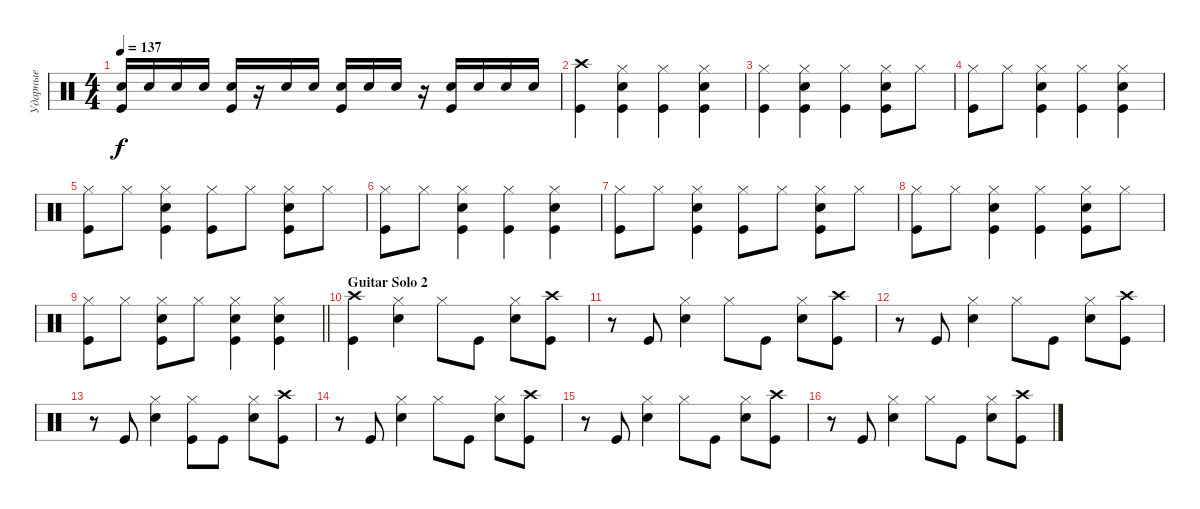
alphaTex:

\track ("Ударные" "Ударные") {instrument percussion}
\staff {score}
\articulation defaults
\ts (4 4)
\tempo 137
\clef neutral
\ks aminor
("Snare (hit) 2" "Kick (hit)").16{dy f} "Snare (hit) 2".16 "Snare (hit) 2".16 "Snare (hit) 2".16 ("Snare (hit) 2" "Kick (hit)").16 r.16 "Snare (hit) 2".16 "Snare (hit) 2".16 ("Snare (hit) 2" "Kick (hit)").16 "Snare (hit) 2".16 "Snare (hit) 2".16 r.16 ("Snare (hit) 2" "Kick (hit)").16 "Snare (hit) 2".16 "Snare (hit) 2".16 "Snare (hit) 2".16 |
("Kick (hit)" "Crash high (hit)").4 ("Snare (hit) 2" "Hi-Hat (closed)" "Kick (hit)").4 ("Kick (hit)" "Hi-Hat (closed)").4 ("Snare (hit) 2" "Hi-Hat (closed)" "Kick (hit)").4 |
("Kick (hit)" "Hi-Hat (closed)").4 ("Snare (hit) 2" "Hi-Hat (closed)" "Kick (hit)").4 ("Kick (hit)" "Hi-Hat (closed)").4 ("Snare (hit) 2" "Hi-Hat (closed)" "Kick (hit)").8 "Hi-Hat (closed)".8 |
("Kick (hit)" "Hi-Hat (closed)").8 "Hi-Hat (closed)".8 ("Snare (hit) 2" "Hi-Hat (closed)" "Kick (hit)").4 ("Kick (hit)" "Hi-Hat (closed)").4 ("Snare (hit) 2" "Hi-Hat (closed)" "Kick (hit)").4 |
("Kick (hit)" "Hi-Hat (closed)").8 "Hi-Hat (closed)".8 ("Snare (hit) 2" "Hi-Hat (closed)" "Kick (hit)").4 ("Kick (hit)" "Hi-Hat (closed)").8 "Hi-Hat (closed)".8 ("Snare (hit) 2" "Hi-Hat (closed)" "Kick (hit)").8 "Hi-Hat (closed)".8 |
("Kick (hit)" "Hi-Hat (closed)").8 "Hi-Hat (closed)".8 ("Snare (hit) 2" "Hi-Hat (closed)" "Kick (hit)").4 ("Kick (hit)" "Hi-Hat (closed)").4 ("Snare (hit) 2" "Hi-Hat (closed)" "Kick (hit)").4 |
("Kick (hit)" "Hi-Hat (closed)").8 "Hi-Hat (closed)".8 ("Snare (hit) 2" "Hi-Hat (closed)" "Kick (hit)").4 ("Kick (hit)" "Hi-Hat (closed)").8 "Hi-Hat (closed)".8 ("Snare (hit) 2" "Hi-Hat (closed)" "Kick (hit)").8 "Hi-Hat (closed)".8 |
("Kick (hit)" "Hi-Hat (closed)").8 "Hi-Hat (closed)".8 ("Snare (hit) 2" "Hi-Hat (closed)" "Kick (hit)").4 ("Kick (hit)" "Hi-Hat (closed)").4 ("Snare (hit) 2" "Hi-Hat (closed)" "Kick (hit)").8 "Hi-Hat (closed)".8 |
\barLineRight lightlight
("Kick (hit)" "Hi-Hat (closed)").8 "Hi-Hat (closed)".8 ("Snare (hit) 2" "Hi-Hat (closed)" "Kick (hit)").8 "Hi-Hat (closed)".8 ("Kick (hit)" "Hi-Hat (closed)" "Snare (hit) 2").4 ("Snare (hit) 2" "Hi-Hat (closed)" "Kick (hit)").4 |
\section ("" "Guitar Solo 2")
("Kick (hit)" "Crash high (hit)").4 ("Snare (hit) 2" "Hi-Hat (closed)").4 "Hi-Hat (closed)".8 "Kick (hit)".8 ("Snare (hit) 2" "Hi-Hat (closed)").8 ("Kick (hit)" "Crash high (hit)").8 |
r.8 "Kick (hit)".8 ("Snare (hit) 2" "Hi-Hat (closed)").4 "Hi-Hat (closed)".8 "Kick (hit)".8 ("Snare (hit) 2" "Hi-Hat (closed)").8 ("Kick (hit)" "Crash high (hit)").8 |
r.8 "Kick (hit)".8 ("Snare (hit) 2" "Hi-Hat (closed)").4 "Hi-Hat (closed)".8 "Kick (hit)".8 ("Snare (hit) 2" "Hi-Hat (closed)").8 ("Kick (hit)" "Crash high (hit)").8 |
r.8 "Kick (hit)".8 ("Snare (hit) 2" "Hi-Hat (closed)").4 ("Hi-Hat (closed)" "Kick (hit)").8 "Kick (hit)".8 ("Snare (hit) 2" "Hi-Hat (closed)").8 ("Kick (hit)" "Crash high (hit)").8 |
r.8 "Kick (hit)".8 ("Snare (hit) 2" "Hi-Hat (closed)").4 "Hi-Hat (closed)".8 "Kick (hit)".8 ("Snare (hit) 2" "Hi-Hat (closed)").8 ("Kick (hit)" "Crash high (hit)").8 |
r.8 "Kick (hit)".8 ("Snare (hit) 2" "Hi-Hat (closed)").4 "Hi-Hat (closed)".8 "Kick (hit)".8 ("Snare (hit) 2" "Hi-Hat (closed)").8 ("Kick (hit)" "Crash high (hit)").8 |
r.8 "Kick (hit)".8 ("Snare (hit) 2" "Hi-Hat (closed)").4 "Hi-Hat (closed)".8 "Kick (hit)".8 ("Snare (hit) 2" "Hi-Hat (closed)").8 ("Kick (hit)" "Crash high (hit)").8
